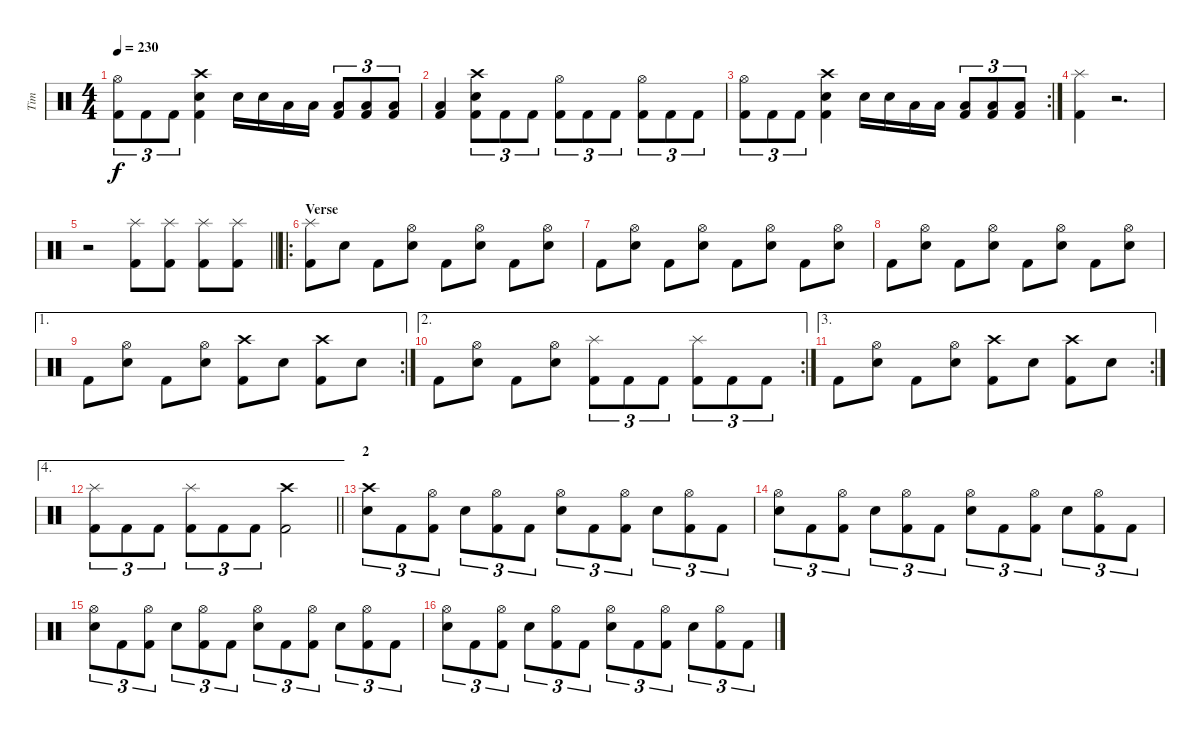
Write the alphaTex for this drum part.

\track ("Tim" "Tim") {instrument percussion}
\staff {score}
\articulation defaults
\ts (4 4)
\tempo 230
\clef neutral
\ks c
("Hi-Hat (open)" "Kick (hit) 2").8{tu (3 2) dy f} "Kick (hit) 2".8{tu (3 2)} "Kick (hit) 2".8{tu (3 2)} ("Snare (hit) 2" "Crash high (hit)" "Kick (hit) 2").4 "Snare (hit) 2".16 "Snare (hit) 2".16 "Low Tom (hit)".16 "Low Tom (hit)".16 ("Kick (hit) 2" "Low Floor Tom (hit)").8{tu (3 2)} ("Kick (hit) 2" "Low Floor Tom (hit)").8{tu (3 2)} ("Kick (hit) 2" "Low Floor Tom (hit)").8{tu (3 2)} |
("Low Floor Tom (hit)" "Kick (hit) 2").4 ("Snare (hit) 2" "Crash high (hit)" "Kick (hit) 2").8{tu (3 2)} "Kick (hit) 2".8{tu (3 2)} "Kick (hit) 2".8{tu (3 2)} ("Hi-Hat (open)" "Kick (hit) 2").8{tu (3 2)} "Kick (hit) 2".8{tu (3 2)} "Kick (hit) 2".8{tu (3 2)} ("Hi-Hat (open)" "Kick (hit) 2").8{tu (3 2)} "Kick (hit) 2".8{tu (3 2)} "Kick (hit) 2".8{tu (3 2)} |
\rc 2
("Hi-Hat (open)" "Kick (hit) 2").8{tu (3 2)} "Kick (hit) 2".8{tu (3 2)} "Kick (hit) 2".8{tu (3 2)} ("Snare (hit) 2" "Crash high (hit)" "Kick (hit) 2").4 "Snare (hit) 2".16 "Snare (hit) 2".16 "Low Tom (hit)".16 "Low Tom (hit)".16 ("Kick (hit) 2" "Low Floor Tom (hit)").8{tu (3 2)} ("Kick (hit) 2" "Low Floor Tom (hit)").8{tu (3 2)} ("Kick (hit) 2" "Low Floor Tom (hit)").8{tu (3 2)} |
("Splash (hit)" "Kick (hit) 2").4 r.2{d} |
\barLineRight lightlight
r.2 ("Splash (hit)" "Kick (hit) 2").8 ("Splash (hit)" "Kick (hit) 2").8 ("Splash (hit)" "Kick (hit) 2").8 ("Splash (hit)" "Kick (hit) 2").8 |
\ro
\section ("" "Verse")
("Splash (hit)" "Kick (hit) 2").8 "Snare (hit) 2".8 "Kick (hit) 2".8 ("Hi-Hat (open)" "Snare (hit) 2").8 "Kick (hit) 2".8 ("Hi-Hat (open)" "Snare (hit) 2").8 "Kick (hit) 2".8 ("Hi-Hat (open)" "Snare (hit) 2").8 |
"Kick (hit) 2".8 ("Hi-Hat (open)" "Snare (hit) 2").8 "Kick (hit) 2".8 ("Hi-Hat (open)" "Snare (hit) 2").8 "Kick (hit) 2".8 ("Hi-Hat (open)" "Snare (hit) 2").8 "Kick (hit) 2".8 ("Hi-Hat (open)" "Snare (hit) 2").8 |
"Kick (hit) 2".8 ("Hi-Hat (open)" "Snare (hit) 2").8 "Kick (hit) 2".8 ("Hi-Hat (open)" "Snare (hit) 2").8 "Kick (hit) 2".8 ("Hi-Hat (open)" "Snare (hit) 2").8 "Kick (hit) 2".8 ("Hi-Hat (open)" "Snare (hit) 2").8 |
\ae 1
\rc 2 "Kick (hit) 2".8
("Hi-Hat (open)" "Snare (hit) 2").8 "Kick (hit) 2".8 ("Hi-Hat (open)" "Snare (hit) 2").8 ("Crash high (hit)" "Kick (hit) 2").8 "Snare (hit) 2".8 ("Crash high (hit)" "Kick (hit) 2").8 "Snare (hit) 2".8 |
\ae 2
\rc 2 "Kick (hit) 2".8
("Hi-Hat (open)" "Snare (hit) 2").8 "Kick (hit) 2".8 ("Hi-Hat (open)" "Snare (hit) 2").8 ("Splash (hit)" "Kick (hit) 2").8{tu (3 2)} "Kick (hit) 2".8{tu (3 2)} "Kick (hit) 2".8{tu (3 2)} ("Splash (hit)" "Kick (hit) 2").8{tu (3 2)} "Kick (hit) 2".8{tu (3 2)} "Kick (hit) 2".8{tu (3 2)} |
\ae 3
\rc 2 "Kick (hit) 2".8
("Hi-Hat (open)" "Snare (hit) 2").8 "Kick (hit) 2".8 ("Hi-Hat (open)" "Snare (hit) 2").8 ("Crash high (hit)" "Kick (hit) 2").8 "Snare (hit) 2".8 ("Crash high (hit)" "Kick (hit) 2").8 "Snare (hit) 2".8 |
\ae 4
\barLineRight lightlight
("Splash (hit)" "Kick (hit) 2").8{tu (3 2)} "Kick (hit) 2".8{tu (3 2)} "Kick (hit) 2".8{tu (3 2)} ("Splash (hit)" "Kick (hit) 2").8{tu (3 2)} "Kick (hit) 2".8{tu (3 2)} "Kick (hit) 2".8{tu (3 2)} ("Crash high (hit)" "Kick (hit) 2").2 |
\section ("" "2")
("Crash high (hit)" "Snare (hit) 2").8{tu (3 2)} "Kick (hit) 2".8{tu (3 2)} ("Hi-Hat (open)" "Kick (hit) 2").8{tu (3 2)} "Snare (hit) 2".8{tu (3 2)} ("Hi-Hat (open)" "Kick (hit) 2").8{tu (3 2)} "Kick (hit) 2".8{tu (3 2)} ("Hi-Hat (open)" "Snare (hit) 2").8{tu (3 2)} "Kick (hit) 2".8{tu (3 2)} ("Hi-Hat (open)" "Kick (hit) 2").8{tu (3 2)} "Snare (hit) 2".8{tu (3 2)} ("Hi-Hat (open)" "Kick (hit) 2").8{tu (3 2)} "Kick (hit) 2".8{tu (3 2)} |
("Hi-Hat (open)" "Snare (hit) 2").8{tu (3 2)} "Kick (hit) 2".8{tu (3 2)} ("Hi-Hat (open)" "Kick (hit) 2").8{tu (3 2)} "Snare (hit) 2".8{tu (3 2)} ("Hi-Hat (open)" "Kick (hit) 2").8{tu (3 2)} "Kick (hit) 2".8{tu (3 2)} ("Hi-Hat (open)" "Snare (hit) 2").8{tu (3 2)} "Kick (hit) 2".8{tu (3 2)} ("Hi-Hat (open)" "Kick (hit) 2").8{tu (3 2)} "Snare (hit) 2".8{tu (3 2)} ("Hi-Hat (open)" "Kick (hit) 2").8{tu (3 2)} "Kick (hit) 2".8{tu (3 2)} |
("Hi-Hat (open)" "Snare (hit) 2").8{tu (3 2)} "Kick (hit) 2".8{tu (3 2)} ("Hi-Hat (open)" "Kick (hit) 2").8{tu (3 2)} "Snare (hit) 2".8{tu (3 2)} ("Hi-Hat (open)" "Kick (hit) 2").8{tu (3 2)} "Kick (hit) 2".8{tu (3 2)} ("Hi-Hat (open)" "Snare (hit) 2").8{tu (3 2)} "Kick (hit) 2".8{tu (3 2)} ("Hi-Hat (open)" "Kick (hit) 2").8{tu (3 2)} "Snare (hit) 2".8{tu (3 2)} ("Hi-Hat (open)" "Kick (hit) 2").8{tu (3 2)} "Kick (hit) 2".8{tu (3 2)} |
("Hi-Hat (open)" "Snare (hit) 2").8{tu (3 2)} "Kick (hit) 2".8{tu (3 2)} ("Hi-Hat (open)" "Kick (hit) 2").8{tu (3 2)} "Snare (hit) 2".8{tu (3 2)} ("Hi-Hat (open)" "Kick (hit) 2").8{tu (3 2)} "Kick (hit) 2".8{tu (3 2)} ("Hi-Hat (open)" "Snare (hit) 2").8{tu (3 2)} "Kick (hit) 2".8{tu (3 2)} ("Hi-Hat (open)" "Kick (hit) 2").8{tu (3 2)} "Snare (hit) 2".8{tu (3 2)} ("Hi-Hat (open)" "Kick (hit) 2").8{tu (3 2)} "Kick (hit) 2".8{tu (3 2)}
